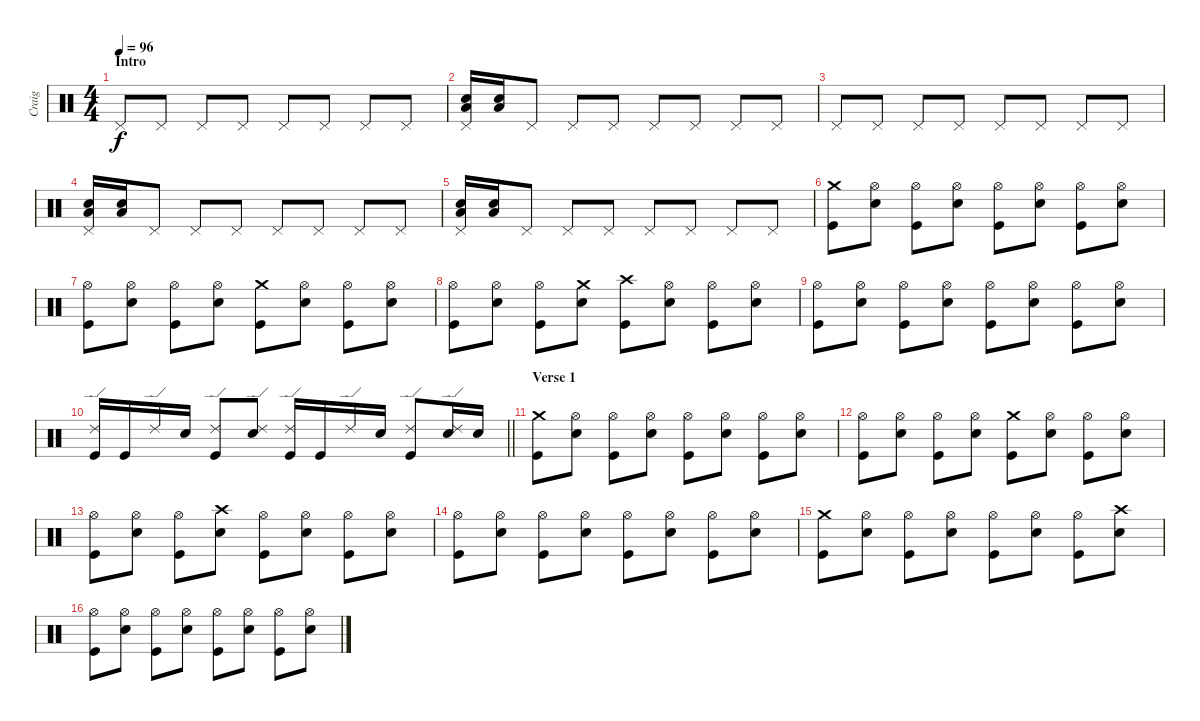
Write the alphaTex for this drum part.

\track ("Craig" "Craig") {instrument percussion}
\staff {score}
\articulation defaults
\ts (4 4)
\section ("" "Intro")
\tempo 96
\clef neutral
\ks c "Pedal Hi-Hat (hit)".8{dy f volume 0} "Pedal Hi-Hat (hit)".8 "Pedal Hi-Hat (hit)".8 "Pedal Hi-Hat (hit)".8 "Pedal Hi-Hat (hit)".8{volume 16} "Pedal Hi-Hat (hit)".8 "Pedal Hi-Hat (hit)".8 "Pedal Hi-Hat (hit)".8
|
("Pedal Hi-Hat (hit)" "Low Floor Tom (hit)" "Snare (hit) 2").16 ("Low Floor Tom (hit)" "Snare (hit) 2").16 "Pedal Hi-Hat (hit)".8 "Pedal Hi-Hat (hit)".8 "Pedal Hi-Hat (hit)".8 "Pedal Hi-Hat (hit)".8 "Pedal Hi-Hat (hit)".8 "Pedal Hi-Hat (hit)".8 "Pedal Hi-Hat (hit)".8 |
"Pedal Hi-Hat (hit)".8 "Pedal Hi-Hat (hit)".8 "Pedal Hi-Hat (hit)".8 "Pedal Hi-Hat (hit)".8 "Pedal Hi-Hat (hit)".8 "Pedal Hi-Hat (hit)".8 "Pedal Hi-Hat (hit)".8 "Pedal Hi-Hat (hit)".8 |
("Pedal Hi-Hat (hit)" "Low Floor Tom (hit)" "Snare (hit) 2").16 ("Low Floor Tom (hit)" "Snare (hit) 2").16 "Pedal Hi-Hat (hit)".8 "Pedal Hi-Hat (hit)".8 "Pedal Hi-Hat (hit)".8 "Pedal Hi-Hat (hit)".8 "Pedal Hi-Hat (hit)".8 "Pedal Hi-Hat (hit)".8 "Pedal Hi-Hat (hit)".8 |
("Pedal Hi-Hat (hit)" "Low Floor Tom (hit)" "Snare (hit) 2").16 ("Low Floor Tom (hit)" "Snare (hit) 2").16 "Pedal Hi-Hat (hit)".8 "Pedal Hi-Hat (hit)".8 "Pedal Hi-Hat (hit)".8 "Pedal Hi-Hat (hit)".8 "Pedal Hi-Hat (hit)".8 "Pedal Hi-Hat (hit)".8 "Pedal Hi-Hat (hit)".8 |
("Crash medium (hit)" "Kick (hit)").8 ("Hi-Hat (open)" "Snare (hit) 2").8 ("Hi-Hat (open)" "Kick (hit)").8 ("Hi-Hat (open)" "Snare (hit) 2").8 ("Hi-Hat (open)" "Kick (hit)").8 ("Hi-Hat (open)" "Snare (hit) 2").8 ("Hi-Hat (open)" "Kick (hit)").8 ("Hi-Hat (open)" "Snare (hit) 2").8 |
("Hi-Hat (open)" "Kick (hit)").8 ("Hi-Hat (open)" "Snare (hit) 2").8 ("Hi-Hat (open)" "Kick (hit)").8 ("Hi-Hat (open)" "Snare (hit) 2").8 ("Crash medium (hit)" "Kick (hit)").8 ("Hi-Hat (open)" "Snare (hit) 2").8 ("Hi-Hat (open)" "Kick (hit)").8 ("Hi-Hat (open)" "Snare (hit) 2").8 |
("Hi-Hat (open)" "Kick (hit)").8 ("Hi-Hat (open)" "Snare (hit) 2").8 ("Hi-Hat (open)" "Kick (hit)").8 ("Crash medium (hit)" "Snare (hit) 2").8 ("Crash high (hit)" "Kick (hit)").8 ("Hi-Hat (open)" "Snare (hit) 2").8 ("Hi-Hat (open)" "Kick (hit)").8 ("Hi-Hat (open)" "Snare (hit) 2").8 |
("Hi-Hat (open)" "Kick (hit)").8 ("Hi-Hat (open)" "Snare (hit) 2").8 ("Hi-Hat (open)" "Kick (hit)").8 ("Hi-Hat (open)" "Snare (hit) 2").8 ("Hi-Hat (open)" "Kick (hit)").8 ("Hi-Hat (open)" "Snare (hit) 2").8 ("Hi-Hat (open)" "Kick (hit)").8 ("Hi-Hat (open)" "Snare (hit) 2").8 |
\barLineRight lightlight
("Ride (edge) 2" "Kick (hit)").16 "Kick (hit)".16 "Ride (edge) 2".16 "Snare (hit) 2".16 ("Ride (edge) 2" "Kick (hit)").8 ("Ride (edge) 2" "Snare (hit) 2").8 ("Ride (edge) 2" "Kick (hit)").16 "Kick (hit)".16 "Ride (edge) 2".16 "Snare (hit) 2".16 ("Ride (edge) 2" "Kick (hit)").8 ("Ride (edge) 2" "Snare (hit) 2").16 "Snare (hit) 2".16 |
\section ("" "Verse 1")
("Crash medium (hit)" "Kick (hit)").8 ("Hi-Hat (open)" "Snare (hit) 2").8 ("Hi-Hat (open)" "Kick (hit)").8 ("Hi-Hat (open)" "Snare (hit) 2").8 ("Hi-Hat (open)" "Kick (hit)").8 ("Hi-Hat (open)" "Snare (hit) 2").8 ("Hi-Hat (open)" "Kick (hit)").8 ("Hi-Hat (open)" "Snare (hit) 2").8 |
("Hi-Hat (open)" "Kick (hit)").8 ("Hi-Hat (open)" "Snare (hit) 2").8 ("Hi-Hat (open)" "Kick (hit)").8 ("Hi-Hat (open)" "Snare (hit) 2").8 ("Crash medium (hit)" "Kick (hit)").8 ("Hi-Hat (open)" "Snare (hit) 2").8 ("Hi-Hat (open)" "Kick (hit)").8 ("Hi-Hat (open)" "Snare (hit) 2").8 |
("Hi-Hat (open)" "Kick (hit)").8 ("Hi-Hat (open)" "Snare (hit) 2").8 ("Hi-Hat (open)" "Kick (hit)").8 ("Crash high (hit)" "Snare (hit) 2").8 ("Hi-Hat (open)" "Kick (hit)").8 ("Hi-Hat (open)" "Snare (hit) 2").8 ("Hi-Hat (open)" "Kick (hit)").8 ("Hi-Hat (open)" "Snare (hit) 2").8 |
("Hi-Hat (open)" "Kick (hit)").8 ("Hi-Hat (open)" "Snare (hit) 2").8 ("Hi-Hat (open)" "Kick (hit)").8 ("Hi-Hat (open)" "Snare (hit) 2").8 ("Hi-Hat (open)" "Kick (hit)").8 ("Hi-Hat (open)" "Snare (hit) 2").8 ("Hi-Hat (open)" "Kick (hit)").8 ("Hi-Hat (open)" "Snare (hit) 2").8 |
("Crash medium (hit)" "Kick (hit)").8 ("Hi-Hat (open)" "Snare (hit) 2").8 ("Hi-Hat (open)" "Kick (hit)").8 ("Hi-Hat (open)" "Snare (hit) 2").8 ("Hi-Hat (open)" "Kick (hit)").8 ("Hi-Hat (open)" "Snare (hit) 2").8 ("Hi-Hat (open)" "Kick (hit)").8 ("Crash high (hit)" "Snare (hit) 2").8 |
("Hi-Hat (open)" "Kick (hit)").8 ("Hi-Hat (open)" "Snare (hit) 2").8 ("Hi-Hat (open)" "Kick (hit)").8 ("Hi-Hat (open)" "Snare (hit) 2").8 ("Hi-Hat (open)" "Kick (hit)").8 ("Hi-Hat (open)" "Snare (hit) 2").8 ("Hi-Hat (open)" "Kick (hit)").8 ("Hi-Hat (open)" "Snare (hit) 2").8
